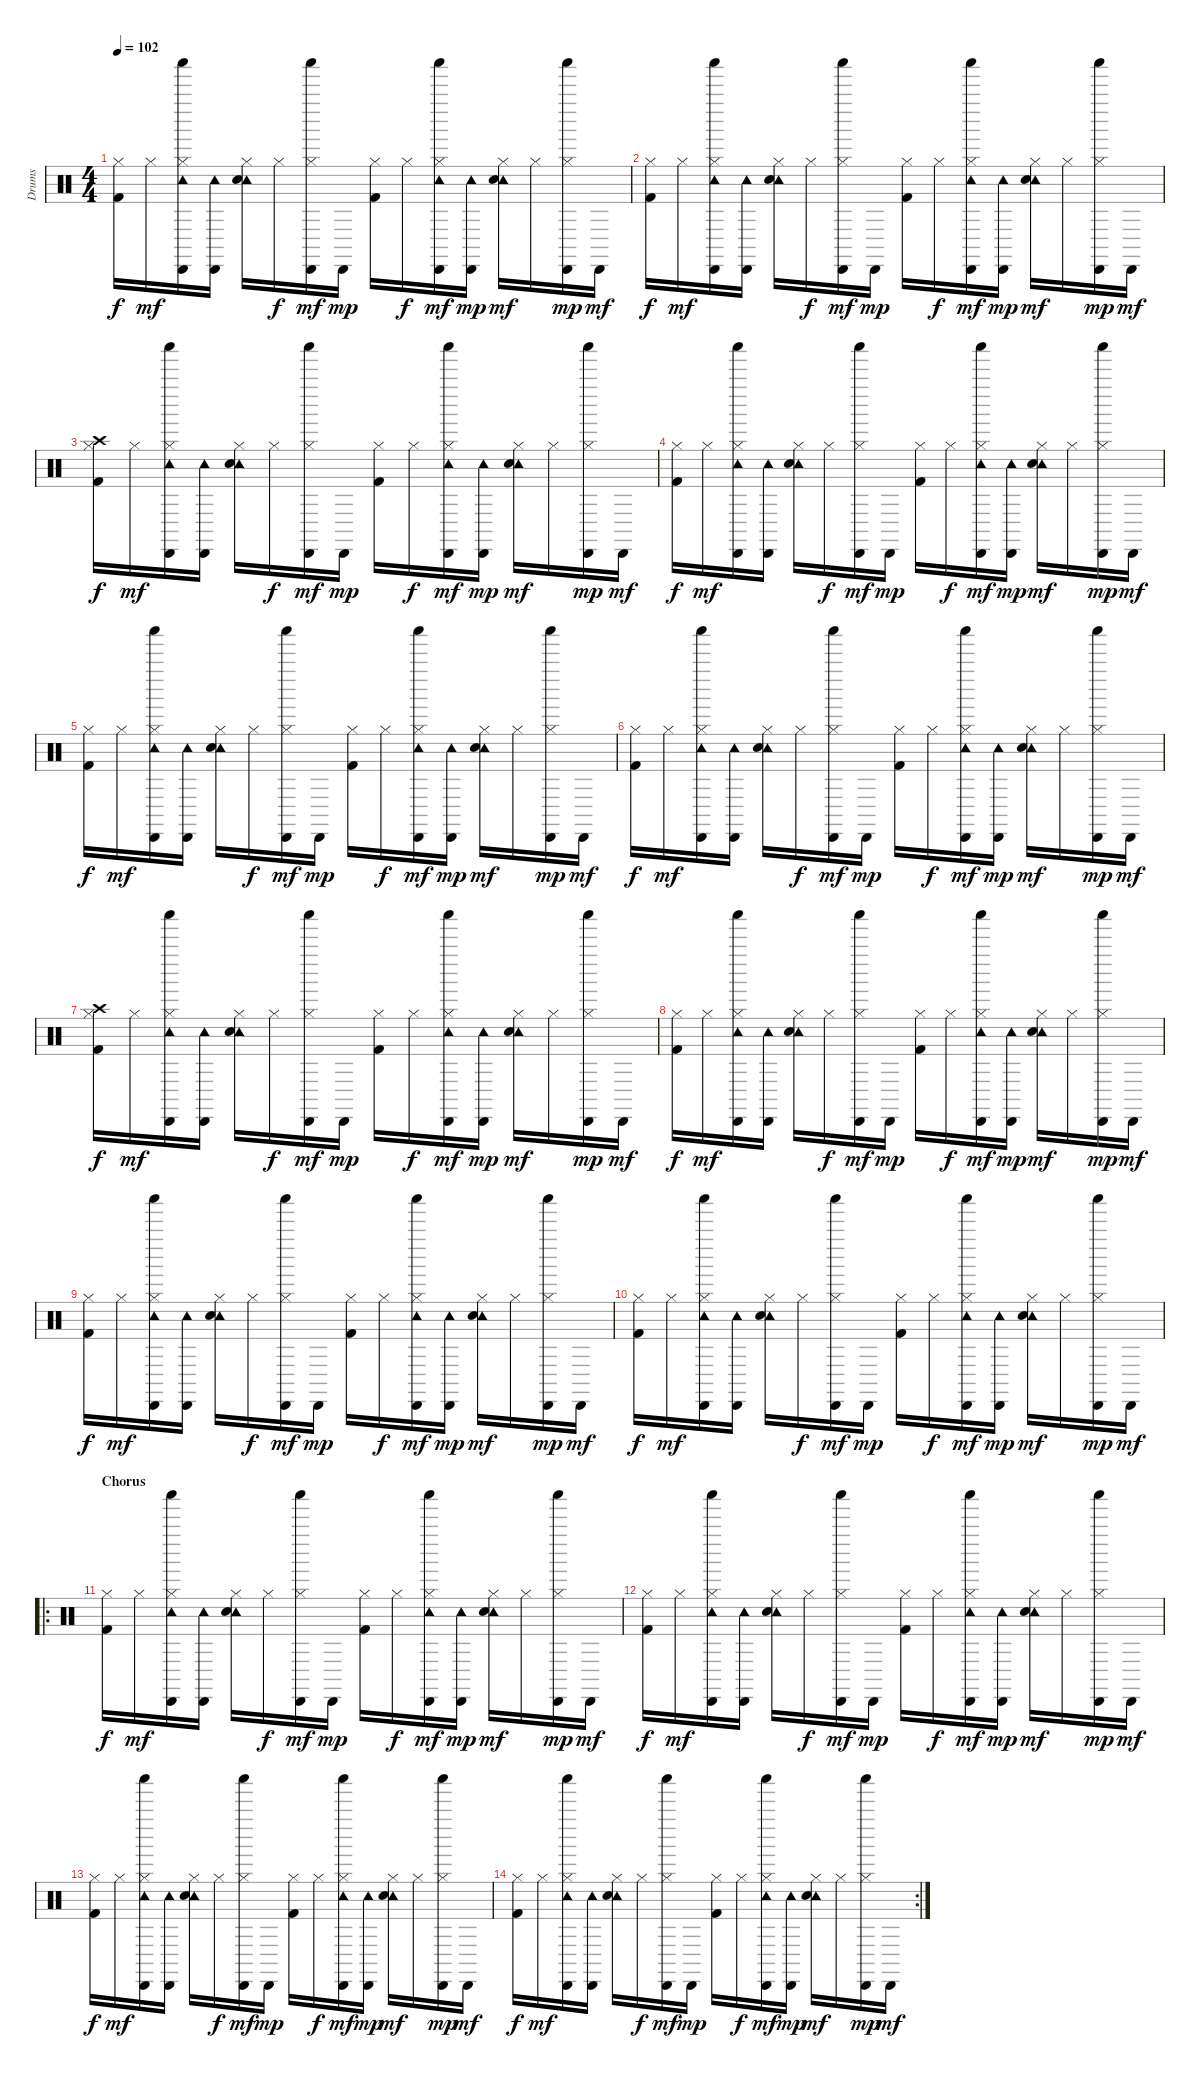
\track ("Drums" "Drums") {instrument percussion}
\staff {score}
\articulation defaults
\ts (4 4)
\tempo 102
\clef neutral
\ks c
("Hi-Hat (closed)" "Kick (hit) 2").16{dy f} "Hi-Hat (closed)".16{dy mf} ("Hi-Hat (closed)" "Tambourine (hit)" "Cabasa (hit)" "Shaker (hit)").16 ("Tambourine (hit)" "Cabasa (hit)").16 ("Hi-Hat (closed)" "Tambourine (hit)" "Electric Snare (hit)").16 "Hi-Hat (closed)".16{dy f} ("Hi-Hat (closed)" "Cabasa (hit)" "Shaker (hit)").16{dy mf} "Cabasa (hit)".16{dy mp} ("Hi-Hat (closed)" "Kick (hit) 2").16 "Hi-Hat (closed)".16{dy f} ("Hi-Hat (closed)" "Tambourine (hit)" "Cabasa (hit)" "Shaker (hit)").16{dy mf} ("Tambourine (hit)" "Cabasa (hit)").16{dy mp} ("Hi-Hat (closed)" "Tambourine (hit)" "Electric Snare (hit)").16{dy mf} "Hi-Hat (closed)".16 ("Hi-Hat (closed)" "Cabasa (hit)" "Shaker (hit)").16{dy mp} "Cabasa (hit)".16{dy mf} |
("Hi-Hat (closed)" "Kick (hit) 2").16{dy f} "Hi-Hat (closed)".16{dy mf} ("Hi-Hat (closed)" "Tambourine (hit)" "Cabasa (hit)" "Shaker (hit)").16 ("Tambourine (hit)" "Cabasa (hit)").16 ("Hi-Hat (closed)" "Tambourine (hit)" "Electric Snare (hit)").16 "Hi-Hat (closed)".16{dy f} ("Hi-Hat (closed)" "Cabasa (hit)" "Shaker (hit)").16{dy mf} "Cabasa (hit)".16{dy mp} ("Hi-Hat (closed)" "Kick (hit) 2").16 "Hi-Hat (closed)".16{dy f} ("Hi-Hat (closed)" "Tambourine (hit)" "Cabasa (hit)" "Shaker (hit)").16{dy mf} ("Tambourine (hit)" "Cabasa (hit)").16{dy mp} ("Hi-Hat (closed)" "Tambourine (hit)" "Electric Snare (hit)").16{dy mf} "Hi-Hat (closed)".16 ("Hi-Hat (closed)" "Cabasa (hit)" "Shaker (hit)").16{dy mp} "Cabasa (hit)".16{dy mf} |
("Hi-Hat (closed)" "Crash high (hit)" "Kick (hit) 2").16{dy f} "Hi-Hat (closed)".16{dy mf} ("Hi-Hat (closed)" "Tambourine (hit)" "Cabasa (hit)" "Shaker (hit)").16 ("Tambourine (hit)" "Cabasa (hit)").16 ("Hi-Hat (closed)" "Tambourine (hit)" "Electric Snare (hit)").16 "Hi-Hat (closed)".16{dy f} ("Hi-Hat (closed)" "Cabasa (hit)" "Shaker (hit)").16{dy mf} "Cabasa (hit)".16{dy mp} ("Hi-Hat (closed)" "Kick (hit) 2").16 "Hi-Hat (closed)".16{dy f} ("Hi-Hat (closed)" "Tambourine (hit)" "Cabasa (hit)" "Shaker (hit)").16{dy mf} ("Tambourine (hit)" "Cabasa (hit)").16{dy mp} ("Hi-Hat (closed)" "Tambourine (hit)" "Electric Snare (hit)").16{dy mf} "Hi-Hat (closed)".16 ("Hi-Hat (closed)" "Cabasa (hit)" "Shaker (hit)").16{dy mp} "Cabasa (hit)".16{dy mf} |
("Hi-Hat (closed)" "Kick (hit) 2").16{dy f} "Hi-Hat (closed)".16{dy mf} ("Hi-Hat (closed)" "Tambourine (hit)" "Cabasa (hit)" "Shaker (hit)").16 ("Tambourine (hit)" "Cabasa (hit)").16 ("Hi-Hat (closed)" "Tambourine (hit)" "Electric Snare (hit)").16 "Hi-Hat (closed)".16{dy f} ("Hi-Hat (closed)" "Cabasa (hit)" "Shaker (hit)").16{dy mf} "Cabasa (hit)".16{dy mp} ("Hi-Hat (closed)" "Kick (hit) 2").16 "Hi-Hat (closed)".16{dy f} ("Hi-Hat (closed)" "Tambourine (hit)" "Cabasa (hit)" "Shaker (hit)").16{dy mf} ("Tambourine (hit)" "Cabasa (hit)").16{dy mp} ("Hi-Hat (closed)" "Tambourine (hit)" "Electric Snare (hit)").16{dy mf} "Hi-Hat (closed)".16 ("Hi-Hat (closed)" "Cabasa (hit)" "Shaker (hit)").16{dy mp} "Cabasa (hit)".16{dy mf} |
("Hi-Hat (closed)" "Kick (hit) 2").16{dy f} "Hi-Hat (closed)".16{dy mf} ("Hi-Hat (closed)" "Tambourine (hit)" "Cabasa (hit)" "Shaker (hit)").16 ("Tambourine (hit)" "Cabasa (hit)").16 ("Hi-Hat (closed)" "Tambourine (hit)" "Electric Snare (hit)").16 "Hi-Hat (closed)".16{dy f} ("Hi-Hat (closed)" "Cabasa (hit)" "Shaker (hit)").16{dy mf} "Cabasa (hit)".16{dy mp} ("Hi-Hat (closed)" "Kick (hit) 2").16 "Hi-Hat (closed)".16{dy f} ("Hi-Hat (closed)" "Tambourine (hit)" "Cabasa (hit)" "Shaker (hit)").16{dy mf} ("Tambourine (hit)" "Cabasa (hit)").16{dy mp} ("Hi-Hat (closed)" "Tambourine (hit)" "Electric Snare (hit)").16{dy mf} "Hi-Hat (closed)".16 ("Hi-Hat (closed)" "Cabasa (hit)" "Shaker (hit)").16{dy mp} "Cabasa (hit)".16{dy mf} |
("Hi-Hat (closed)" "Kick (hit) 2").16{dy f} "Hi-Hat (closed)".16{dy mf} ("Hi-Hat (closed)" "Tambourine (hit)" "Cabasa (hit)" "Shaker (hit)").16 ("Tambourine (hit)" "Cabasa (hit)").16 ("Hi-Hat (closed)" "Tambourine (hit)" "Electric Snare (hit)").16 "Hi-Hat (closed)".16{dy f} ("Hi-Hat (closed)" "Cabasa (hit)" "Shaker (hit)").16{dy mf} "Cabasa (hit)".16{dy mp} ("Hi-Hat (closed)" "Kick (hit) 2").16 "Hi-Hat (closed)".16{dy f} ("Hi-Hat (closed)" "Tambourine (hit)" "Cabasa (hit)" "Shaker (hit)").16{dy mf} ("Tambourine (hit)" "Cabasa (hit)").16{dy mp} ("Hi-Hat (closed)" "Tambourine (hit)" "Electric Snare (hit)").16{dy mf} "Hi-Hat (closed)".16 ("Hi-Hat (closed)" "Cabasa (hit)" "Shaker (hit)").16{dy mp} "Cabasa (hit)".16{dy mf} |
("Hi-Hat (closed)" "Crash high (hit)" "Kick (hit) 2").16{dy f} "Hi-Hat (closed)".16{dy mf} ("Hi-Hat (closed)" "Tambourine (hit)" "Cabasa (hit)" "Shaker (hit)").16 ("Tambourine (hit)" "Cabasa (hit)").16 ("Hi-Hat (closed)" "Tambourine (hit)" "Electric Snare (hit)").16 "Hi-Hat (closed)".16{dy f} ("Hi-Hat (closed)" "Cabasa (hit)" "Shaker (hit)").16{dy mf} "Cabasa (hit)".16{dy mp} ("Hi-Hat (closed)" "Kick (hit) 2").16 "Hi-Hat (closed)".16{dy f} ("Hi-Hat (closed)" "Tambourine (hit)" "Cabasa (hit)" "Shaker (hit)").16{dy mf} ("Tambourine (hit)" "Cabasa (hit)").16{dy mp} ("Hi-Hat (closed)" "Tambourine (hit)" "Electric Snare (hit)").16{dy mf} "Hi-Hat (closed)".16 ("Hi-Hat (closed)" "Cabasa (hit)" "Shaker (hit)").16{dy mp} "Cabasa (hit)".16{dy mf} |
("Hi-Hat (closed)" "Kick (hit) 2").16{dy f} "Hi-Hat (closed)".16{dy mf} ("Hi-Hat (closed)" "Tambourine (hit)" "Cabasa (hit)" "Shaker (hit)").16 ("Tambourine (hit)" "Cabasa (hit)").16 ("Hi-Hat (closed)" "Tambourine (hit)" "Electric Snare (hit)").16 "Hi-Hat (closed)".16{dy f} ("Hi-Hat (closed)" "Cabasa (hit)" "Shaker (hit)").16{dy mf} "Cabasa (hit)".16{dy mp} ("Hi-Hat (closed)" "Kick (hit) 2").16 "Hi-Hat (closed)".16{dy f} ("Hi-Hat (closed)" "Tambourine (hit)" "Cabasa (hit)" "Shaker (hit)").16{dy mf} ("Tambourine (hit)" "Cabasa (hit)").16{dy mp} ("Hi-Hat (closed)" "Tambourine (hit)" "Electric Snare (hit)").16{dy mf} "Hi-Hat (closed)".16 ("Hi-Hat (closed)" "Cabasa (hit)" "Shaker (hit)").16{dy mp} "Cabasa (hit)".16{dy mf} |
("Hi-Hat (closed)" "Kick (hit) 2").16{dy f} "Hi-Hat (closed)".16{dy mf} ("Hi-Hat (closed)" "Tambourine (hit)" "Cabasa (hit)" "Shaker (hit)").16 ("Tambourine (hit)" "Cabasa (hit)").16 ("Hi-Hat (closed)" "Tambourine (hit)" "Electric Snare (hit)").16 "Hi-Hat (closed)".16{dy f} ("Hi-Hat (closed)" "Cabasa (hit)" "Shaker (hit)").16{dy mf} "Cabasa (hit)".16{dy mp} ("Hi-Hat (closed)" "Kick (hit) 2").16 "Hi-Hat (closed)".16{dy f} ("Hi-Hat (closed)" "Tambourine (hit)" "Cabasa (hit)" "Shaker (hit)").16{dy mf} ("Tambourine (hit)" "Cabasa (hit)").16{dy mp} ("Hi-Hat (closed)" "Tambourine (hit)" "Electric Snare (hit)").16{dy mf} "Hi-Hat (closed)".16 ("Hi-Hat (closed)" "Cabasa (hit)" "Shaker (hit)").16{dy mp} "Cabasa (hit)".16{dy mf} |
("Hi-Hat (closed)" "Kick (hit) 2").16{dy f} "Hi-Hat (closed)".16{dy mf} ("Hi-Hat (closed)" "Tambourine (hit)" "Cabasa (hit)" "Shaker (hit)").16 ("Tambourine (hit)" "Cabasa (hit)").16 ("Hi-Hat (closed)" "Tambourine (hit)" "Electric Snare (hit)").16 "Hi-Hat (closed)".16{dy f} ("Hi-Hat (closed)" "Cabasa (hit)" "Shaker (hit)").16{dy mf} "Cabasa (hit)".16{dy mp} ("Hi-Hat (closed)" "Kick (hit) 2").16 "Hi-Hat (closed)".16{dy f} ("Hi-Hat (closed)" "Tambourine (hit)" "Cabasa (hit)" "Shaker (hit)").16{dy mf} ("Tambourine (hit)" "Cabasa (hit)").16{dy mp} ("Hi-Hat (closed)" "Tambourine (hit)" "Electric Snare (hit)").16{dy mf} "Hi-Hat (closed)".16 ("Hi-Hat (closed)" "Cabasa (hit)" "Shaker (hit)").16{dy mp} "Cabasa (hit)".16{dy mf} |
\ro
\section ("" "Chorus")
("Hi-Hat (closed)" "Kick (hit) 2").16{dy f} "Hi-Hat (closed)".16{dy mf} ("Hi-Hat (closed)" "Tambourine (hit)" "Cabasa (hit)" "Shaker (hit)").16 ("Tambourine (hit)" "Cabasa (hit)").16 ("Hi-Hat (closed)" "Tambourine (hit)" "Electric Snare (hit)").16 "Hi-Hat (closed)".16{dy f} ("Hi-Hat (closed)" "Cabasa (hit)" "Shaker (hit)").16{dy mf} "Cabasa (hit)".16{dy mp} ("Hi-Hat (closed)" "Kick (hit) 2").16 "Hi-Hat (closed)".16{dy f} ("Hi-Hat (closed)" "Tambourine (hit)" "Cabasa (hit)" "Shaker (hit)").16{dy mf} ("Tambourine (hit)" "Cabasa (hit)").16{dy mp} ("Hi-Hat (closed)" "Tambourine (hit)" "Electric Snare (hit)").16{dy mf} "Hi-Hat (closed)".16 ("Hi-Hat (closed)" "Cabasa (hit)" "Shaker (hit)").16{dy mp} "Cabasa (hit)".16{dy mf} |
("Hi-Hat (closed)" "Kick (hit) 2").16{dy f} "Hi-Hat (closed)".16{dy mf} ("Hi-Hat (closed)" "Tambourine (hit)" "Cabasa (hit)" "Shaker (hit)").16 ("Tambourine (hit)" "Cabasa (hit)").16 ("Hi-Hat (closed)" "Tambourine (hit)" "Electric Snare (hit)").16 "Hi-Hat (closed)".16{dy f} ("Hi-Hat (closed)" "Cabasa (hit)" "Shaker (hit)").16{dy mf} "Cabasa (hit)".16{dy mp} ("Hi-Hat (closed)" "Kick (hit) 2").16 "Hi-Hat (closed)".16{dy f} ("Hi-Hat (closed)" "Tambourine (hit)" "Cabasa (hit)" "Shaker (hit)").16{dy mf} ("Tambourine (hit)" "Cabasa (hit)").16{dy mp} ("Hi-Hat (closed)" "Tambourine (hit)" "Electric Snare (hit)").16{dy mf} "Hi-Hat (closed)".16 ("Hi-Hat (closed)" "Cabasa (hit)" "Shaker (hit)").16{dy mp} "Cabasa (hit)".16{dy mf} |
("Hi-Hat (closed)" "Kick (hit) 2").16{dy f} "Hi-Hat (closed)".16{dy mf} ("Hi-Hat (closed)" "Tambourine (hit)" "Cabasa (hit)" "Shaker (hit)").16 ("Tambourine (hit)" "Cabasa (hit)").16 ("Hi-Hat (closed)" "Tambourine (hit)" "Electric Snare (hit)").16 "Hi-Hat (closed)".16{dy f} ("Hi-Hat (closed)" "Cabasa (hit)" "Shaker (hit)").16{dy mf} "Cabasa (hit)".16{dy mp} ("Hi-Hat (closed)" "Kick (hit) 2").16 "Hi-Hat (closed)".16{dy f} ("Hi-Hat (closed)" "Tambourine (hit)" "Cabasa (hit)" "Shaker (hit)").16{dy mf} ("Tambourine (hit)" "Cabasa (hit)").16{dy mp} ("Hi-Hat (closed)" "Tambourine (hit)" "Electric Snare (hit)").16{dy mf} "Hi-Hat (closed)".16 ("Hi-Hat (closed)" "Cabasa (hit)" "Shaker (hit)").16{dy mp} "Cabasa (hit)".16{dy mf} |
\rc 2
("Hi-Hat (closed)" "Kick (hit) 2").16{dy f} "Hi-Hat (closed)".16{dy mf} ("Hi-Hat (closed)" "Tambourine (hit)" "Cabasa (hit)" "Shaker (hit)").16 ("Tambourine (hit)" "Cabasa (hit)").16 ("Hi-Hat (closed)" "Tambourine (hit)" "Electric Snare (hit)").16 "Hi-Hat (closed)".16{dy f} ("Hi-Hat (closed)" "Cabasa (hit)" "Shaker (hit)").16{dy mf} "Cabasa (hit)".16{dy mp} ("Hi-Hat (closed)" "Kick (hit) 2").16 "Hi-Hat (closed)".16{dy f} ("Hi-Hat (closed)" "Tambourine (hit)" "Cabasa (hit)" "Shaker (hit)").16{dy mf} ("Tambourine (hit)" "Cabasa (hit)").16{dy mp} ("Hi-Hat (closed)" "Tambourine (hit)" "Electric Snare (hit)").16{dy mf} "Hi-Hat (closed)".16 ("Hi-Hat (closed)" "Cabasa (hit)" "Shaker (hit)").16{dy mp} "Cabasa (hit)".16{dy mf}
